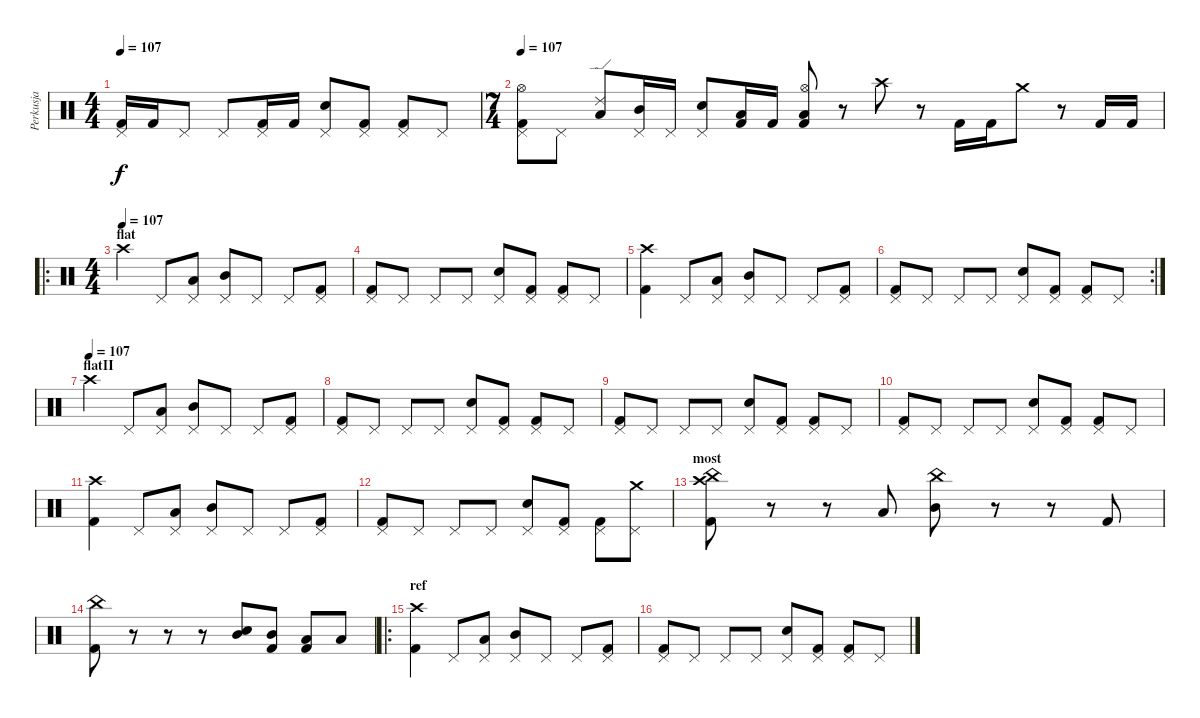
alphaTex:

\track ("Perkusja" "Perkusja") {instrument percussion}
\staff {score}
\articulation defaults
\ts (4 4)
\tempo 107
\clef neutral
\ks c
("Pedal Hi-Hat (hit)" "Kick (hit) 2").16{dy f} "Kick (hit) 2".16 "Pedal Hi-Hat (hit)".8 "Pedal Hi-Hat (hit)".8 ("Pedal Hi-Hat (hit)" "Kick (hit) 2").16 "Kick (hit) 2".16 ("Pedal Hi-Hat (hit)" "Snare (hit) 2").8 ("Pedal Hi-Hat (hit)" "Kick (hit) 2").8 ("Pedal Hi-Hat (hit)" "Kick (hit) 2").8 "Pedal Hi-Hat (hit)".8 |
\ts (7 4)
\tempo 107
("Pedal Hi-Hat (hit)" "Kick (hit) 2" "Hi-Hat (open)").8 "Pedal Hi-Hat (hit)".8 ("Ride (edge) 2" "Low Tom (hit)").8 ("Pedal Hi-Hat (hit)" "Mid Tom (hit)").16 "Pedal Hi-Hat (hit)".16 ("Pedal Hi-Hat (hit)" "Snare (hit) 2").8 ("Kick (hit) 2" "Low Tom (hit)").16 "Kick (hit) 2".16 ("Kick (hit) 2" "Low Tom (hit)" "Hi-Hat (open)").8 r.8 "Crash high (hit)".8 r.8 "Kick (hit) 2".16 "Kick (hit) 2".16 "Crash medium (hit)".8 r.8 "Kick (hit) 2".16 "Kick (hit) 2".16 |
\ro
\ts (4 4)
\section ("" "flat")
\tempo (107)
"Crash high (hit)".4 "Pedal Hi-Hat (hit)".8 ("Pedal Hi-Hat (hit)" "Low Tom (hit)").8 ("Pedal Hi-Hat (hit)" "Mid Tom (hit)").8 "Pedal Hi-Hat (hit)".8 "Pedal Hi-Hat (hit)".8 ("Pedal Hi-Hat (hit)" "Kick (hit) 2").8 |
("Pedal Hi-Hat (hit)" "Kick (hit) 2").8 "Pedal Hi-Hat (hit)".8 "Pedal Hi-Hat (hit)".8 "Pedal Hi-Hat (hit)".8 ("Pedal Hi-Hat (hit)" "Snare (hit) 2").8 ("Pedal Hi-Hat (hit)" "Kick (hit) 2").8 ("Pedal Hi-Hat (hit)" "Kick (hit) 2").8 "Pedal Hi-Hat (hit)".8 |
("Kick (hit) 2" "Crash high (hit)").4 "Pedal Hi-Hat (hit)".8 ("Pedal Hi-Hat (hit)" "Low Tom (hit)").8 ("Pedal Hi-Hat (hit)" "Mid Tom (hit)").8 "Pedal Hi-Hat (hit)".8 "Pedal Hi-Hat (hit)".8 ("Pedal Hi-Hat (hit)" "Kick (hit) 2").8 |
\rc 2
("Pedal Hi-Hat (hit)" "Kick (hit) 2").8 "Pedal Hi-Hat (hit)".8 "Pedal Hi-Hat (hit)".8 "Pedal Hi-Hat (hit)".8 ("Pedal Hi-Hat (hit)" "Snare (hit) 2").8 ("Pedal Hi-Hat (hit)" "Kick (hit) 2").8 ("Pedal Hi-Hat (hit)" "Kick (hit) 2").8 "Pedal Hi-Hat (hit)".8 |
\section ("" "flatII")
\tempo (107)
"Crash high (hit)".4 "Pedal Hi-Hat (hit)".8 ("Pedal Hi-Hat (hit)" "Low Tom (hit)").8 ("Pedal Hi-Hat (hit)" "Mid Tom (hit)").8 "Pedal Hi-Hat (hit)".8 "Pedal Hi-Hat (hit)".8 ("Pedal Hi-Hat (hit)" "Kick (hit) 2").8 |
("Pedal Hi-Hat (hit)" "Kick (hit) 2").8 "Pedal Hi-Hat (hit)".8 "Pedal Hi-Hat (hit)".8 "Pedal Hi-Hat (hit)".8 ("Pedal Hi-Hat (hit)" "Snare (hit) 2").8 ("Pedal Hi-Hat (hit)" "Kick (hit) 2").8 ("Pedal Hi-Hat (hit)" "Kick (hit) 2").8 "Pedal Hi-Hat (hit)".8 |
("Pedal Hi-Hat (hit)" "Kick (hit) 2").8 "Pedal Hi-Hat (hit)".8 "Pedal Hi-Hat (hit)".8 "Pedal Hi-Hat (hit)".8 ("Pedal Hi-Hat (hit)" "Snare (hit) 2").8 ("Pedal Hi-Hat (hit)" "Kick (hit) 2").8 ("Pedal Hi-Hat (hit)" "Kick (hit) 2").8 "Pedal Hi-Hat (hit)".8 |
("Pedal Hi-Hat (hit)" "Kick (hit) 2").8 "Pedal Hi-Hat (hit)".8 "Pedal Hi-Hat (hit)".8 "Pedal Hi-Hat (hit)".8 ("Pedal Hi-Hat (hit)" "Snare (hit) 2").8 ("Pedal Hi-Hat (hit)" "Kick (hit) 2").8 ("Pedal Hi-Hat (hit)" "Kick (hit) 2").8 "Pedal Hi-Hat (hit)".8 |
("Kick (hit) 2" "Crash high (hit)").4 "Pedal Hi-Hat (hit)".8 ("Pedal Hi-Hat (hit)" "Low Tom (hit)").8 ("Pedal Hi-Hat (hit)" "Mid Tom (hit)").8 "Pedal Hi-Hat (hit)".8 "Pedal Hi-Hat (hit)".8 ("Pedal Hi-Hat (hit)" "Kick (hit) 2").8 |
("Pedal Hi-Hat (hit)" "Kick (hit) 2").8 "Pedal Hi-Hat (hit)".8 "Pedal Hi-Hat (hit)".8 "Pedal Hi-Hat (hit)".8 ("Pedal Hi-Hat (hit)" "Snare (hit) 2").8 ("Pedal Hi-Hat (hit)" "Kick (hit) 2").8 ("Pedal Hi-Hat (hit)" "Kick (hit) 2").8 ("Pedal Hi-Hat (hit)" "Crash medium (hit)").8 |
\section ("" "most")
("Kick (hit) 2" "China (hit)" "Crash high (hit)").8 r.8 r.8 "Low Tom (hit)".8 ("China (hit)" "Mid Tom (hit)").8 r.8 r.8 "Kick (hit) 2".8 |
("Kick (hit) 2" "China (hit)").8 r.8 r.8 r.8 ("Mid Tom (hit)" "Snare (hit) 2").8 ("Kick (hit) 2" "Mid Tom (hit)").8 ("Kick (hit) 2" "Low Tom (hit)").8 "Low Tom (hit)".8 |
\ro
\section ("" "ref")
("Kick (hit) 2" "Crash high (hit)").4 "Pedal Hi-Hat (hit)".8 ("Pedal Hi-Hat (hit)" "Low Tom (hit)").8 ("Pedal Hi-Hat (hit)" "Mid Tom (hit)").8 "Pedal Hi-Hat (hit)".8 "Pedal Hi-Hat (hit)".8 ("Pedal Hi-Hat (hit)" "Kick (hit) 2").8 |
("Pedal Hi-Hat (hit)" "Kick (hit) 2").8 "Pedal Hi-Hat (hit)".8 "Pedal Hi-Hat (hit)".8 "Pedal Hi-Hat (hit)".8 ("Pedal Hi-Hat (hit)" "Snare (hit) 2").8 ("Pedal Hi-Hat (hit)" "Kick (hit) 2").8 ("Pedal Hi-Hat (hit)" "Kick (hit) 2").8 "Pedal Hi-Hat (hit)".8
